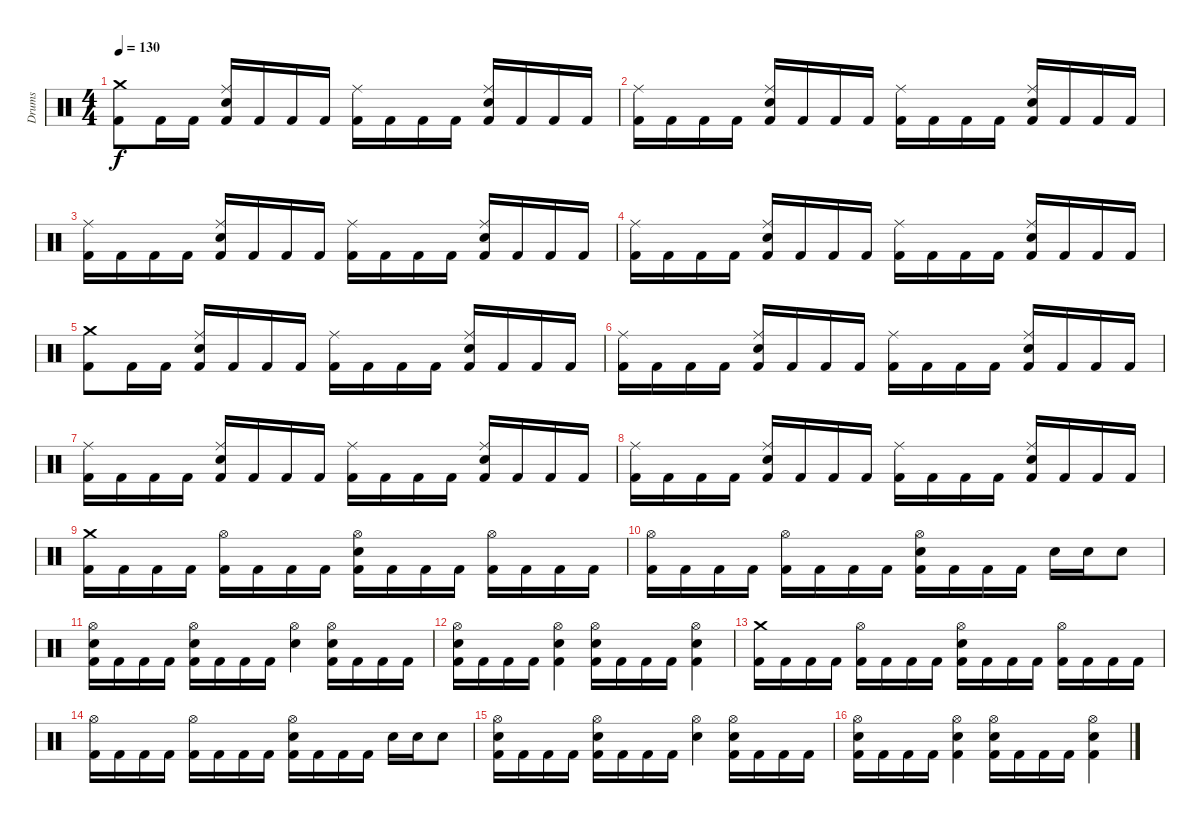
\track ("Drums" "Drums") {instrument percussion}
\staff {score}
\articulation defaults
\ts (4 4)
\tempo 130
\clef neutral
\ks c
("Crash medium (hit)" "Kick (hit) 2").8{dy f} "Kick (hit) 2".16 "Kick (hit) 2".16 ("Ride (middle)" "Snare (hit) 2" "Kick (hit) 2").16 "Kick (hit) 2".16 "Kick (hit) 2".16 "Kick (hit) 2".16 ("Ride (middle)" "Kick (hit) 2").16 "Kick (hit) 2".16 "Kick (hit) 2".16 "Kick (hit) 2".16 ("Ride (middle)" "Snare (hit) 2" "Kick (hit) 2").16 "Kick (hit) 2".16 "Kick (hit) 2".16 "Kick (hit) 2".16 |
("Ride (middle)" "Kick (hit) 2").16 "Kick (hit) 2".16 "Kick (hit) 2".16 "Kick (hit) 2".16 ("Ride (middle)" "Snare (hit) 2" "Kick (hit) 2").16 "Kick (hit) 2".16 "Kick (hit) 2".16 "Kick (hit) 2".16 ("Ride (middle)" "Kick (hit) 2").16 "Kick (hit) 2".16 "Kick (hit) 2".16 "Kick (hit) 2".16 ("Ride (middle)" "Snare (hit) 2" "Kick (hit) 2").16 "Kick (hit) 2".16 "Kick (hit) 2".16 "Kick (hit) 2".16 |
("Ride (middle)" "Kick (hit) 2").16 "Kick (hit) 2".16 "Kick (hit) 2".16 "Kick (hit) 2".16 ("Ride (middle)" "Snare (hit) 2" "Kick (hit) 2").16 "Kick (hit) 2".16 "Kick (hit) 2".16 "Kick (hit) 2".16 ("Ride (middle)" "Kick (hit) 2").16 "Kick (hit) 2".16 "Kick (hit) 2".16 "Kick (hit) 2".16 ("Ride (middle)" "Snare (hit) 2" "Kick (hit) 2").16 "Kick (hit) 2".16 "Kick (hit) 2".16 "Kick (hit) 2".16 |
("Ride (middle)" "Kick (hit) 2").16 "Kick (hit) 2".16 "Kick (hit) 2".16 "Kick (hit) 2".16 ("Ride (middle)" "Snare (hit) 2" "Kick (hit) 2").16 "Kick (hit) 2".16 "Kick (hit) 2".16 "Kick (hit) 2".16 ("Ride (middle)" "Kick (hit) 2").16 "Kick (hit) 2".16 "Kick (hit) 2".16 "Kick (hit) 2".16 ("Ride (middle)" "Snare (hit) 2" "Kick (hit) 2").16 "Kick (hit) 2".16 "Kick (hit) 2".16 "Kick (hit) 2".16 |
("Crash medium (hit)" "Kick (hit) 2").8 "Kick (hit) 2".16 "Kick (hit) 2".16 ("Ride (middle)" "Snare (hit) 2" "Kick (hit) 2").16 "Kick (hit) 2".16 "Kick (hit) 2".16 "Kick (hit) 2".16 ("Ride (middle)" "Kick (hit) 2").16 "Kick (hit) 2".16 "Kick (hit) 2".16 "Kick (hit) 2".16 ("Ride (middle)" "Snare (hit) 2" "Kick (hit) 2").16 "Kick (hit) 2".16 "Kick (hit) 2".16 "Kick (hit) 2".16 |
("Ride (middle)" "Kick (hit) 2").16 "Kick (hit) 2".16 "Kick (hit) 2".16 "Kick (hit) 2".16 ("Ride (middle)" "Snare (hit) 2" "Kick (hit) 2").16 "Kick (hit) 2".16 "Kick (hit) 2".16 "Kick (hit) 2".16 ("Ride (middle)" "Kick (hit) 2").16 "Kick (hit) 2".16 "Kick (hit) 2".16 "Kick (hit) 2".16 ("Ride (middle)" "Snare (hit) 2" "Kick (hit) 2").16 "Kick (hit) 2".16 "Kick (hit) 2".16 "Kick (hit) 2".16 |
("Ride (middle)" "Kick (hit) 2").16 "Kick (hit) 2".16 "Kick (hit) 2".16 "Kick (hit) 2".16 ("Ride (middle)" "Snare (hit) 2" "Kick (hit) 2").16 "Kick (hit) 2".16 "Kick (hit) 2".16 "Kick (hit) 2".16 ("Ride (middle)" "Kick (hit) 2").16 "Kick (hit) 2".16 "Kick (hit) 2".16 "Kick (hit) 2".16 ("Ride (middle)" "Snare (hit) 2" "Kick (hit) 2").16 "Kick (hit) 2".16 "Kick (hit) 2".16 "Kick (hit) 2".16 |
("Ride (middle)" "Kick (hit) 2").16 "Kick (hit) 2".16 "Kick (hit) 2".16 "Kick (hit) 2".16 ("Ride (middle)" "Snare (hit) 2" "Kick (hit) 2").16 "Kick (hit) 2".16 "Kick (hit) 2".16 "Kick (hit) 2".16 ("Ride (middle)" "Kick (hit) 2").16 "Kick (hit) 2".16 "Kick (hit) 2".16 "Kick (hit) 2".16 ("Ride (middle)" "Snare (hit) 2" "Kick (hit) 2").16 "Kick (hit) 2".16 "Kick (hit) 2".16 "Kick (hit) 2".16 |
("Crash medium (hit)" "Kick (hit) 2").16 "Kick (hit) 2".16 "Kick (hit) 2".16 "Kick (hit) 2".16 ("Hi-Hat (open)" "Kick (hit) 2").16 "Kick (hit) 2".16 "Kick (hit) 2".16 "Kick (hit) 2".16 ("Hi-Hat (open)" "Snare (hit) 2" "Kick (hit) 2").16 "Kick (hit) 2".16 "Kick (hit) 2".16 "Kick (hit) 2".16 ("Hi-Hat (open)" "Kick (hit) 2").16 "Kick (hit) 2".16 "Kick (hit) 2".16 "Kick (hit) 2".16 |
("Hi-Hat (open)" "Kick (hit) 2").16 "Kick (hit) 2".16 "Kick (hit) 2".16 "Kick (hit) 2".16 ("Hi-Hat (open)" "Kick (hit) 2").16 "Kick (hit) 2".16 "Kick (hit) 2".16 "Kick (hit) 2".16 ("Hi-Hat (open)" "Snare (hit) 2" "Kick (hit) 2").16 "Kick (hit) 2".16 "Kick (hit) 2".16 "Kick (hit) 2".16 "Snare (hit) 2".16 "Snare (hit) 2".16 "Snare (hit) 2".8 |
("Hi-Hat (open)" "Snare (hit) 2" "Kick (hit) 2").16 "Kick (hit) 2".16 "Kick (hit) 2".16 "Kick (hit) 2".16 ("Hi-Hat (open)" "Snare (hit) 2" "Kick (hit) 2").16 "Kick (hit) 2".16 "Kick (hit) 2".16 "Kick (hit) 2".16 ("Hi-Hat (open)" "Snare (hit) 2").4 ("Hi-Hat (open)" "Snare (hit) 2" "Kick (hit) 2").16 "Kick (hit) 2".16 "Kick (hit) 2".16 "Kick (hit) 2".16 |
("Hi-Hat (open)" "Snare (hit) 2" "Kick (hit) 2").16 "Kick (hit) 2".16 "Kick (hit) 2".16 "Kick (hit) 2".16 ("Hi-Hat (open)" "Snare (hit) 2" "Kick (hit) 2").4 ("Hi-Hat (open)" "Snare (hit) 2" "Kick (hit) 2").16 "Kick (hit) 2".16 "Kick (hit) 2".16 "Kick (hit) 2".16 ("Hi-Hat (open)" "Snare (hit) 2" "Kick (hit) 2").4 |
("Crash medium (hit)" "Kick (hit) 2").16 "Kick (hit) 2".16 "Kick (hit) 2".16 "Kick (hit) 2".16 ("Hi-Hat (open)" "Kick (hit) 2").16 "Kick (hit) 2".16 "Kick (hit) 2".16 "Kick (hit) 2".16 ("Hi-Hat (open)" "Snare (hit) 2" "Kick (hit) 2").16 "Kick (hit) 2".16 "Kick (hit) 2".16 "Kick (hit) 2".16 ("Hi-Hat (open)" "Kick (hit) 2").16 "Kick (hit) 2".16 "Kick (hit) 2".16 "Kick (hit) 2".16 |
("Hi-Hat (open)" "Kick (hit) 2").16 "Kick (hit) 2".16 "Kick (hit) 2".16 "Kick (hit) 2".16 ("Hi-Hat (open)" "Kick (hit) 2").16 "Kick (hit) 2".16 "Kick (hit) 2".16 "Kick (hit) 2".16 ("Hi-Hat (open)" "Snare (hit) 2" "Kick (hit) 2").16 "Kick (hit) 2".16 "Kick (hit) 2".16 "Kick (hit) 2".16 "Snare (hit) 2".16 "Snare (hit) 2".16 "Snare (hit) 2".8 |
("Hi-Hat (open)" "Snare (hit) 2" "Kick (hit) 2").16 "Kick (hit) 2".16 "Kick (hit) 2".16 "Kick (hit) 2".16 ("Hi-Hat (open)" "Snare (hit) 2" "Kick (hit) 2").16 "Kick (hit) 2".16 "Kick (hit) 2".16 "Kick (hit) 2".16 ("Hi-Hat (open)" "Snare (hit) 2").4 ("Hi-Hat (open)" "Snare (hit) 2" "Kick (hit) 2").16 "Kick (hit) 2".16 "Kick (hit) 2".16 "Kick (hit) 2".16 |
("Hi-Hat (open)" "Snare (hit) 2" "Kick (hit) 2").16 "Kick (hit) 2".16 "Kick (hit) 2".16 "Kick (hit) 2".16 ("Hi-Hat (open)" "Snare (hit) 2" "Kick (hit) 2").4 ("Hi-Hat (open)" "Snare (hit) 2" "Kick (hit) 2").16 "Kick (hit) 2".16 "Kick (hit) 2".16 "Kick (hit) 2".16 ("Hi-Hat (open)" "Snare (hit) 2" "Kick (hit) 2").4
